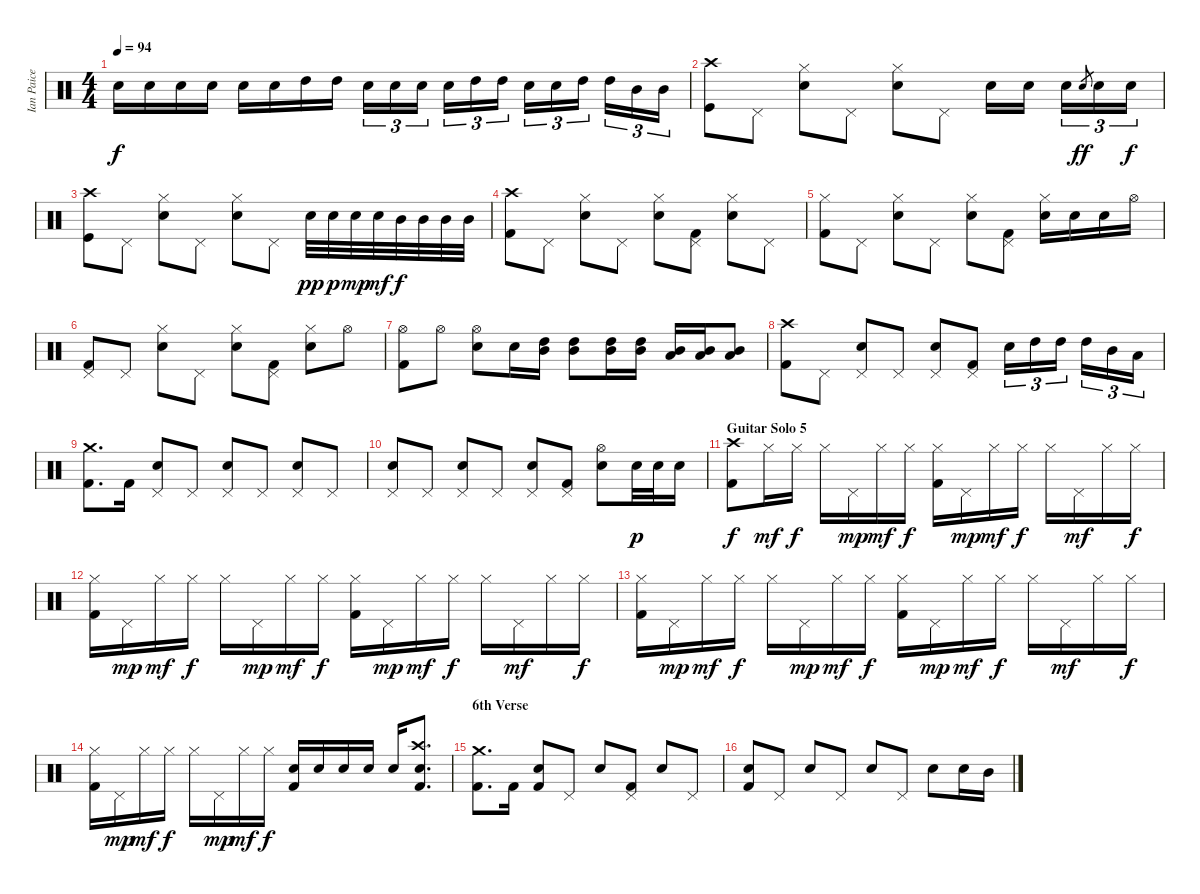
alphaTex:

\track ("Ian Paice (Drums)" "Ian Paice ") {instrument percussion}
\staff {score}
\articulation defaults
\ts (4 4)
\tempo 94
\clef neutral
\ks c "Electric Snare (hit)".16{dy f} "Electric Snare (hit)".16 "Electric Snare (hit)".16 "Electric Snare (hit)".16 "Electric Snare (hit)".16 "Electric Snare (hit)".16 "High Tom (hit)".16 "High Tom (hit)".16 "Electric Snare (hit)".16{tu (3 2)} "Electric Snare (hit)".16{tu (3 2)} "Electric Snare (hit)".16{tu (3 2)} "Electric Snare (hit)".16{tu (3 2)} "High Tom (hit)".16{tu (3 2)} "High Tom (hit)".16{tu (3 2)} "Electric Snare (hit)".16{tu (3 2)} "Electric Snare (hit)".16{tu (3 2)} "High Tom (hit)".16{tu (3 2)} "High Tom (hit)".16{tu (3 2)} "Mid Tom (hit)".16{tu (3 2)} "Mid Tom (hit)".16{tu (3 2)}
|
("Crash high (hit)" "Kick (hit)").8 "Pedal Hi-Hat (hit)".8 ("Hi-Hat (closed)" "Electric Snare (hit)").8 "Pedal Hi-Hat (hit)".8 ("Hi-Hat (closed)" "Electric Snare (hit)").8 "Pedal Hi-Hat (hit)".8 "Electric Snare (hit)".16 "Electric Snare (hit)".16 "Electric Snare (hit)".16{tu (3 2)} "Electric Snare (hit)".8{gr dy ff} "Electric Snare (hit)".16{tu (3 2)} "Electric Snare (hit)".16{tu (3 2) dy f} |
("Crash high (hit)" "Kick (hit)").8 "Pedal Hi-Hat (hit)".8 ("Hi-Hat (closed)" "Electric Snare (hit)").8 "Pedal Hi-Hat (hit)".8 ("Hi-Hat (closed)" "Electric Snare (hit)").8 "Pedal Hi-Hat (hit)".8 "Electric Snare (hit)".32{dy pp} "Electric Snare (hit)".32{dy p} "Electric Snare (hit)".32{dy mp} "Electric Snare (hit)".32{dy mf} "Mid Tom (hit)".32{dy f} "Mid Tom (hit)".32 "Mid Tom (hit)".32 "Mid Tom (hit)".32 |
("Crash high (hit)" "Kick (hit) 2").8 "Pedal Hi-Hat (hit)".8 ("Hi-Hat (closed)" "Electric Snare (hit)").8 "Pedal Hi-Hat (hit)".8 ("Hi-Hat (closed)" "Electric Snare (hit)").8 ("Pedal Hi-Hat (hit)" "Kick (hit) 2").8 ("Hi-Hat (closed)" "Electric Snare (hit)").8 "Pedal Hi-Hat (hit)".8 |
("Hi-Hat (closed)" "Kick (hit) 2").8 "Pedal Hi-Hat (hit)".8 ("Hi-Hat (closed)" "Electric Snare (hit)").8 "Pedal Hi-Hat (hit)".8 ("Hi-Hat (closed)" "Electric Snare (hit)").8 ("Pedal Hi-Hat (hit)" "Kick (hit) 2").8 ("Hi-Hat (closed)" "Electric Snare (hit)").16 "Electric Snare (hit)".16 "Electric Snare (hit)".16 "Hi-Hat (open)".16 |
("Pedal Hi-Hat (hit)" "Kick (hit) 2").8 "Pedal Hi-Hat (hit)".8 ("Hi-Hat (closed)" "Electric Snare (hit)").8 "Pedal Hi-Hat (hit)".8 ("Hi-Hat (closed)" "Electric Snare (hit)").8 ("Pedal Hi-Hat (hit)" "Kick (hit) 2").8 ("Hi-Hat (closed)" "Electric Snare (hit)").8 "Hi-Hat (open)".8 |
("Hi-Hat (open)" "Kick (hit) 2").8 "Hi-Hat (open)".8 ("Hi-Hat (open)" "Electric Snare (hit)").8 "Electric Snare (hit)".16 ("Mid Tom (hit)" "High Tom (hit)").16 ("Mid Tom (hit)" "High Tom (hit)").8 ("Mid Tom (hit)" "High Tom (hit)").16 ("Mid Tom (hit)" "High Tom (hit)").16 ("Low Tom (hit)" "Mid Tom (hit)").16 ("Low Tom (hit)" "Mid Tom (hit)").16 ("Low Tom (hit)" "Mid Tom (hit)").8 |
("Crash high (hit)" "Kick (hit) 2").8 "Pedal Hi-Hat (hit)".8 ("Pedal Hi-Hat (hit)" "Electric Snare (hit)").8 "Pedal Hi-Hat (hit)".8 ("Pedal Hi-Hat (hit)" "Electric Snare (hit)").8 ("Pedal Hi-Hat (hit)" "Kick (hit) 2").8 "Electric Snare (hit)".16{tu (3 2)} "High Tom (hit)".16{tu (3 2)} "High Tom (hit)".16{tu (3 2)} "High Tom (hit)".16{tu (3 2)} "Mid Tom (hit)".16{tu (3 2)} "Low Tom (hit)".16{tu (3 2)} |
("Crash medium (hit)" "Kick (hit) 2").8{d} "Kick (hit) 2".16 ("Pedal Hi-Hat (hit)" "Electric Snare (hit)").8 "Pedal Hi-Hat (hit)".8 ("Pedal Hi-Hat (hit)" "Electric Snare (hit)").8 "Pedal Hi-Hat (hit)".8 ("Pedal Hi-Hat (hit)" "Electric Snare (hit)").8 "Pedal Hi-Hat (hit)".8 |
("Pedal Hi-Hat (hit)" "Electric Snare (hit)").8 "Pedal Hi-Hat (hit)".8 ("Pedal Hi-Hat (hit)" "Electric Snare (hit)").8 "Pedal Hi-Hat (hit)".8 ("Pedal Hi-Hat (hit)" "Electric Snare (hit)").8 ("Pedal Hi-Hat (hit)" "Kick (hit) 2").8 ("Hi-Hat (open)" "Electric Snare (hit)").8 "Electric Snare (hit)".32{dy p} "Electric Snare (hit)".32 "Electric Snare (hit)".16 |
\section ("" "Guitar Solo 5")
("Crash high (hit)" "Kick (hit) 2").8{dy f} "Hi-Hat (closed)".16{dy mf} "Hi-Hat (closed)".16{dy f} "Hi-Hat (closed)".16 "Pedal Hi-Hat (hit)".16{dy mp} "Hi-Hat (closed)".16{dy mf} "Hi-Hat (closed)".16{dy f} ("Hi-Hat (closed)" "Kick (hit) 2").16 "Pedal Hi-Hat (hit)".16{dy mp} "Hi-Hat (closed)".16{dy mf} "Hi-Hat (closed)".16{dy f} "Hi-Hat (closed)".16 "Pedal Hi-Hat (hit)".16{dy mf} "Hi-Hat (closed)".16 "Hi-Hat (closed)".16{dy f} |
("Hi-Hat (closed)" "Kick (hit) 2").16 "Pedal Hi-Hat (hit)".16{dy mp} "Hi-Hat (closed)".16{dy mf} "Hi-Hat (closed)".16{dy f} "Hi-Hat (closed)".16 "Pedal Hi-Hat (hit)".16{dy mp} "Hi-Hat (closed)".16{dy mf} "Hi-Hat (closed)".16{dy f} ("Hi-Hat (closed)" "Kick (hit) 2").16 "Pedal Hi-Hat (hit)".16{dy mp} "Hi-Hat (closed)".16{dy mf} "Hi-Hat (closed)".16{dy f} "Hi-Hat (closed)".16 "Pedal Hi-Hat (hit)".16{dy mf} "Hi-Hat (closed)".16 "Hi-Hat (closed)".16{dy f} |
("Hi-Hat (closed)" "Kick (hit) 2").16 "Pedal Hi-Hat (hit)".16{dy mp} "Hi-Hat (closed)".16{dy mf} "Hi-Hat (closed)".16{dy f} "Hi-Hat (closed)".16 "Pedal Hi-Hat (hit)".16{dy mp} "Hi-Hat (closed)".16{dy mf} "Hi-Hat (closed)".16{dy f} ("Hi-Hat (closed)" "Kick (hit) 2").16 "Pedal Hi-Hat (hit)".16{dy mp} "Hi-Hat (closed)".16{dy mf} "Hi-Hat (closed)".16{dy f} "Hi-Hat (closed)".16 "Pedal Hi-Hat (hit)".16{dy mf} "Hi-Hat (closed)".16 "Hi-Hat (closed)".16{dy f} |
("Hi-Hat (closed)" "Kick (hit) 2").16 "Pedal Hi-Hat (hit)".16{dy mp} "Hi-Hat (closed)".16{dy mf} "Hi-Hat (closed)".16{dy f} "Hi-Hat (closed)".16 "Pedal Hi-Hat (hit)".16{dy mp} "Hi-Hat (closed)".16{dy mf} "Hi-Hat (closed)".16{dy f} ("Electric Snare (hit)" "Kick (hit) 2").16 "Electric Snare (hit)".16 "Electric Snare (hit)".16 "Electric Snare (hit)".16 "Electric Snare (hit)".16 ("Crash high (hit)" "Electric Snare (hit)" "Kick (hit) 2").8{d} |
\section ("" "6th Verse")
("Crash medium (hit)" "Kick (hit) 2").8{d} "Kick (hit) 2".16 ("Electric Snare (hit)" "Kick (hit) 2").8 "Pedal Hi-Hat (hit)".8 "Electric Snare (hit)".8 ("Pedal Hi-Hat (hit)" "Kick (hit) 2").8 "Electric Snare (hit)".8 "Pedal Hi-Hat (hit)".8 |
("Electric Snare (hit)" "Kick (hit) 2").8 "Pedal Hi-Hat (hit)".8 "Electric Snare (hit)".8 "Pedal Hi-Hat (hit)".8 "Electric Snare (hit)".8 "Pedal Hi-Hat (hit)".8 "Electric Snare (hit)".8 "Electric Snare (hit)".16 "Mid Tom (hit)".16
